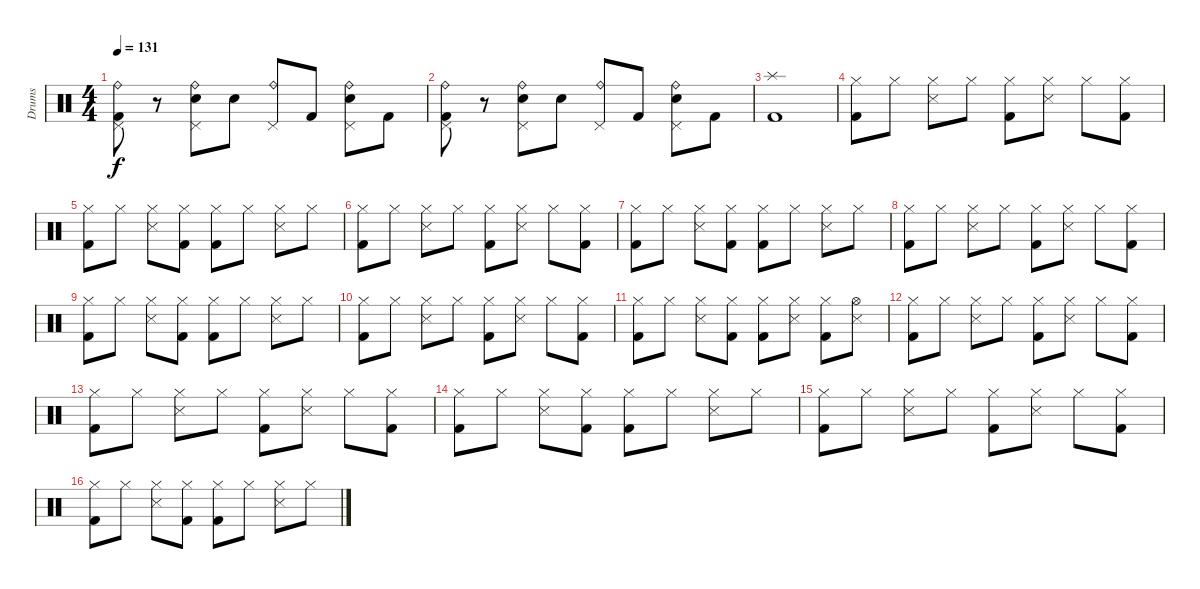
\track ("Drums" "Drums") {instrument percussion}
\staff {score}
\articulation defaults
\ts (4 4)
\tempo 131
\clef neutral
\ks c
("Ride (bell)" "Pedal Hi-Hat (hit)" "Kick (hit) 2").8{dy f} r.8 ("Ride (bell)" "Pedal Hi-Hat (hit)" "Snare (hit) 2").8 "Snare (hit) 2".8 ("Ride (bell)" "Pedal Hi-Hat (hit)").8 "Kick (hit) 2".8 ("Ride (bell)" "Pedal Hi-Hat (hit)" "Snare (hit) 2").8 "Kick (hit) 2".8 |
("Ride (bell)" "Pedal Hi-Hat (hit)" "Kick (hit) 2").8 r.8 ("Ride (bell)" "Pedal Hi-Hat (hit)" "Snare (hit) 2").8 "Snare (hit) 2".8 ("Ride (bell)" "Pedal Hi-Hat (hit)").8 "Kick (hit) 2".8 ("Ride (bell)" "Pedal Hi-Hat (hit)" "Snare (hit) 2").8 "Kick (hit) 2".8 |
("Splash (hit)" "Kick (hit) 2").1 |
("Hi-Hat (closed)" "Kick (hit) 2").8 "Hi-Hat (closed)".8 ("Snare (side stick) 3" "Hi-Hat (closed)").8 "Hi-Hat (closed)".8 ("Hi-Hat (closed)" "Kick (hit) 2").8 ("Snare (side stick) 3" "Hi-Hat (closed)").8 "Hi-Hat (closed)".8 ("Hi-Hat (closed)" "Kick (hit) 2").8 |
("Hi-Hat (closed)" "Kick (hit) 2").8 "Hi-Hat (closed)".8 ("Snare (side stick) 3" "Hi-Hat (closed)").8 ("Hi-Hat (closed)" "Kick (hit) 2").8 ("Hi-Hat (closed)" "Kick (hit) 2").8 "Hi-Hat (closed)".8 ("Snare (side stick) 3" "Hi-Hat (closed)").8 "Hi-Hat (closed)".8 |
("Hi-Hat (closed)" "Kick (hit) 2").8 "Hi-Hat (closed)".8 ("Snare (side stick) 3" "Hi-Hat (closed)").8 "Hi-Hat (closed)".8 ("Hi-Hat (closed)" "Kick (hit) 2").8 ("Snare (side stick) 3" "Hi-Hat (closed)").8 "Hi-Hat (closed)".8 ("Hi-Hat (closed)" "Kick (hit) 2").8 |
("Hi-Hat (closed)" "Kick (hit) 2").8 "Hi-Hat (closed)".8 ("Snare (side stick) 3" "Hi-Hat (closed)").8 ("Hi-Hat (closed)" "Kick (hit) 2").8 ("Hi-Hat (closed)" "Kick (hit) 2").8 "Hi-Hat (closed)".8 ("Snare (side stick) 3" "Hi-Hat (closed)").8 "Hi-Hat (closed)".8 |
("Hi-Hat (closed)" "Kick (hit) 2").8 "Hi-Hat (closed)".8 ("Snare (side stick) 3" "Hi-Hat (closed)").8 "Hi-Hat (closed)".8 ("Hi-Hat (closed)" "Kick (hit) 2").8 ("Snare (side stick) 3" "Hi-Hat (closed)").8 "Hi-Hat (closed)".8 ("Hi-Hat (closed)" "Kick (hit) 2").8 |
("Hi-Hat (closed)" "Kick (hit) 2").8 "Hi-Hat (closed)".8 ("Snare (side stick) 3" "Hi-Hat (closed)").8 ("Hi-Hat (closed)" "Kick (hit) 2").8 ("Hi-Hat (closed)" "Kick (hit) 2").8 "Hi-Hat (closed)".8 ("Snare (side stick) 3" "Hi-Hat (closed)").8 "Hi-Hat (closed)".8 |
("Hi-Hat (closed)" "Kick (hit) 2").8 "Hi-Hat (closed)".8 ("Snare (side stick) 3" "Hi-Hat (closed)").8 "Hi-Hat (closed)".8 ("Hi-Hat (closed)" "Kick (hit) 2").8 ("Snare (side stick) 3" "Hi-Hat (closed)").8 "Hi-Hat (closed)".8 ("Hi-Hat (closed)" "Kick (hit) 2").8 |
("Hi-Hat (closed)" "Kick (hit) 2").8 "Hi-Hat (closed)".8 ("Snare (side stick) 3" "Hi-Hat (closed)").8 ("Hi-Hat (closed)" "Kick (hit) 2").8 ("Hi-Hat (closed)" "Kick (hit) 2").8 ("Snare (side stick) 3" "Hi-Hat (closed)").8 ("Hi-Hat (closed)" "Kick (hit) 2").8 ("Snare (side stick) 3" "Hi-Hat (open)").8 |
("Hi-Hat (closed)" "Kick (hit) 2").8 "Hi-Hat (closed)".8 ("Snare (side stick) 3" "Hi-Hat (closed)").8 "Hi-Hat (closed)".8 ("Hi-Hat (closed)" "Kick (hit) 2").8 ("Snare (side stick) 3" "Hi-Hat (closed)").8 "Hi-Hat (closed)".8 ("Hi-Hat (closed)" "Kick (hit) 2").8 |
("Hi-Hat (closed)" "Kick (hit) 2").8 "Hi-Hat (closed)".8 ("Snare (side stick) 3" "Hi-Hat (closed)").8 "Hi-Hat (closed)".8 ("Hi-Hat (closed)" "Kick (hit) 2").8 ("Snare (side stick) 3" "Hi-Hat (closed)").8 "Hi-Hat (closed)".8 ("Hi-Hat (closed)" "Kick (hit) 2").8 |
("Hi-Hat (closed)" "Kick (hit) 2").8 "Hi-Hat (closed)".8 ("Snare (side stick) 3" "Hi-Hat (closed)").8 ("Hi-Hat (closed)" "Kick (hit) 2").8 ("Hi-Hat (closed)" "Kick (hit) 2").8 "Hi-Hat (closed)".8 ("Snare (side stick) 3" "Hi-Hat (closed)").8 "Hi-Hat (closed)".8 |
("Hi-Hat (closed)" "Kick (hit) 2").8 "Hi-Hat (closed)".8 ("Snare (side stick) 3" "Hi-Hat (closed)").8 "Hi-Hat (closed)".8 ("Hi-Hat (closed)" "Kick (hit) 2").8 ("Snare (side stick) 3" "Hi-Hat (closed)").8 "Hi-Hat (closed)".8 ("Hi-Hat (closed)" "Kick (hit) 2").8 |
("Hi-Hat (closed)" "Kick (hit) 2").8 "Hi-Hat (closed)".8 ("Snare (side stick) 3" "Hi-Hat (closed)").8 ("Hi-Hat (closed)" "Kick (hit) 2").8 ("Hi-Hat (closed)" "Kick (hit) 2").8 "Hi-Hat (closed)".8 ("Snare (side stick) 3" "Hi-Hat (closed)").8 "Hi-Hat (closed)".8
